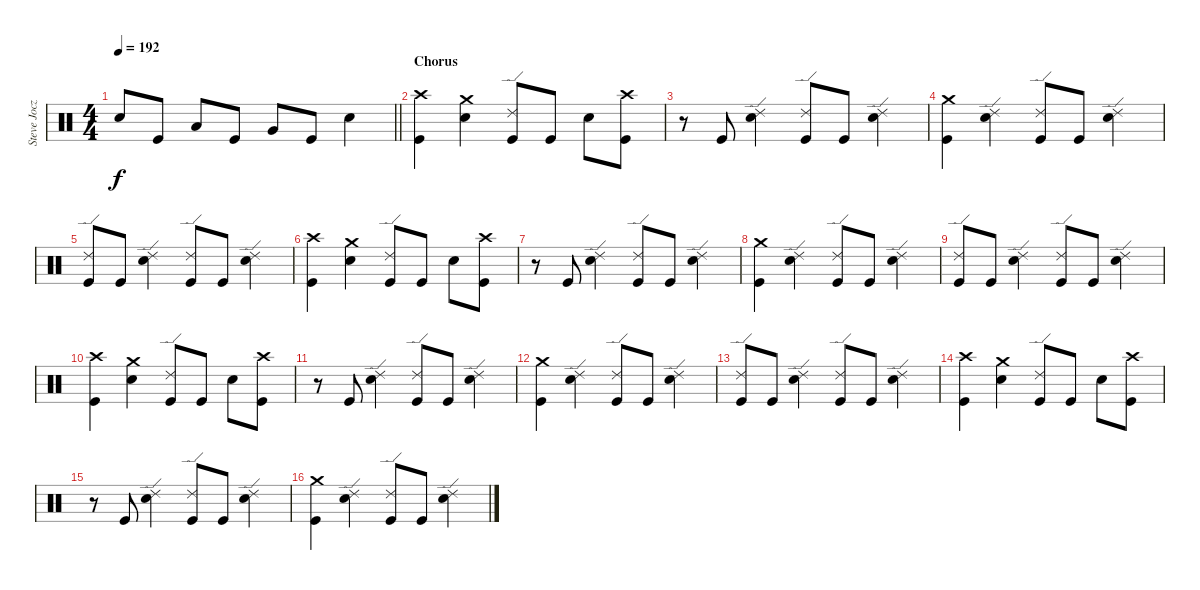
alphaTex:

\track ("Steve Jocz" "Steve Jocz") {instrument percussion}
\staff {score}
\articulation defaults
\ts (4 4)
\tempo 192
\clef neutral
\barLineRight lightlight
\ks c "Electric Snare (hit)".8{dy f} "Kick (hit)".8 "Low Tom (hit)".8 "Kick (hit)".8 "Very Low Tom (hit)".8 "Kick (hit)".8 "Electric Snare (hit)".4
|
\section ("" "Chorus")
("Crash high (hit)" "Kick (hit)").4 ("Crash medium (hit)" "Electric Snare (hit)").4 ("Ride (edge) 2" "Kick (hit)").8 "Kick (hit)".8 "Electric Snare (hit)".8 ("Crash high (hit)" "Kick (hit)").8 |
r.8 "Kick (hit)".8 ("Ride (edge) 2" "Electric Snare (hit)").4 ("Ride (edge) 2" "Kick (hit)").8 "Kick (hit)".8 ("Ride (edge) 2" "Electric Snare (hit)").4 |
("Crash medium (hit)" "Kick (hit)").4 ("Ride (edge) 2" "Electric Snare (hit)").4 ("Ride (edge) 2" "Kick (hit)").8 "Kick (hit)".8 ("Ride (edge) 2" "Electric Snare (hit)").4 |
("Ride (edge) 2" "Kick (hit)").8 "Kick (hit)".8 ("Ride (edge) 2" "Electric Snare (hit)").4 ("Ride (edge) 2" "Kick (hit)").8 "Kick (hit)".8 ("Ride (edge) 2" "Electric Snare (hit)").4 |
("Crash high (hit)" "Kick (hit)").4 ("Crash medium (hit)" "Electric Snare (hit)").4 ("Ride (edge) 2" "Kick (hit)").8 "Kick (hit)".8 "Electric Snare (hit)".8 ("Crash high (hit)" "Kick (hit)").8 |
r.8 "Kick (hit)".8 ("Ride (edge) 2" "Electric Snare (hit)").4 ("Ride (edge) 2" "Kick (hit)").8 "Kick (hit)".8 ("Ride (edge) 2" "Electric Snare (hit)").4 |
("Crash medium (hit)" "Kick (hit)").4 ("Ride (edge) 2" "Electric Snare (hit)").4 ("Ride (edge) 2" "Kick (hit)").8 "Kick (hit)".8 ("Ride (edge) 2" "Electric Snare (hit)").4 |
("Ride (edge) 2" "Kick (hit)").8 "Kick (hit)".8 ("Ride (edge) 2" "Electric Snare (hit)").4 ("Ride (edge) 2" "Kick (hit)").8 "Kick (hit)".8 ("Ride (edge) 2" "Electric Snare (hit)").4 |
("Crash high (hit)" "Kick (hit)").4 ("Crash medium (hit)" "Electric Snare (hit)").4 ("Ride (edge) 2" "Kick (hit)").8 "Kick (hit)".8 "Electric Snare (hit)".8 ("Crash high (hit)" "Kick (hit)").8 |
r.8 "Kick (hit)".8 ("Ride (edge) 2" "Electric Snare (hit)").4 ("Ride (edge) 2" "Kick (hit)").8 "Kick (hit)".8 ("Ride (edge) 2" "Electric Snare (hit)").4 |
("Crash medium (hit)" "Kick (hit)").4 ("Ride (edge) 2" "Electric Snare (hit)").4 ("Ride (edge) 2" "Kick (hit)").8 "Kick (hit)".8 ("Ride (edge) 2" "Electric Snare (hit)").4 |
("Ride (edge) 2" "Kick (hit)").8 "Kick (hit)".8 ("Ride (edge) 2" "Electric Snare (hit)").4 ("Ride (edge) 2" "Kick (hit)").8 "Kick (hit)".8 ("Ride (edge) 2" "Electric Snare (hit)").4 |
("Crash high (hit)" "Kick (hit)").4 ("Crash medium (hit)" "Electric Snare (hit)").4 ("Ride (edge) 2" "Kick (hit)").8 "Kick (hit)".8 "Electric Snare (hit)".8 ("Crash high (hit)" "Kick (hit)").8 |
r.8 "Kick (hit)".8 ("Ride (edge) 2" "Electric Snare (hit)").4 ("Ride (edge) 2" "Kick (hit)").8 "Kick (hit)".8 ("Ride (edge) 2" "Electric Snare (hit)").4 |
("Crash medium (hit)" "Kick (hit)").4 ("Ride (edge) 2" "Electric Snare (hit)").4 ("Ride (edge) 2" "Kick (hit)").8 "Kick (hit)".8 ("Ride (edge) 2" "Electric Snare (hit)").4
